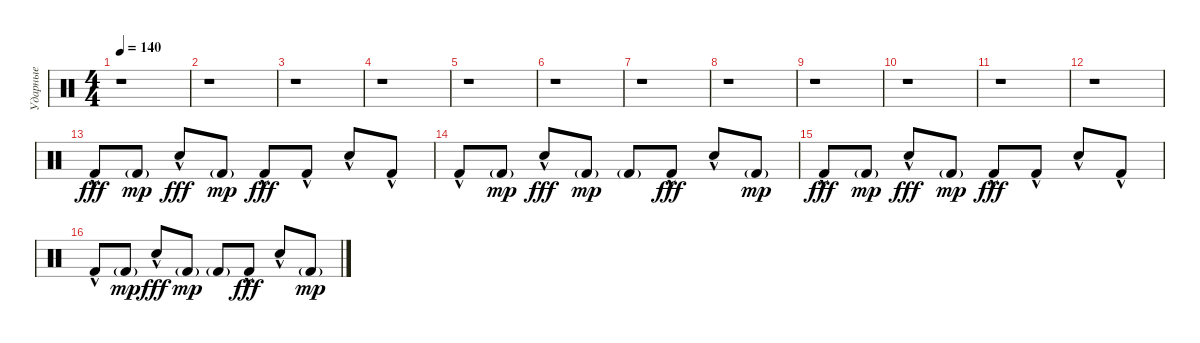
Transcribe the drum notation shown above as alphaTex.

\track ("Ударные" "Ударные") {instrument percussion}
\staff {score}
\articulation defaults
\ts (4 4)
\tempo 140
\clef neutral
\ks c
r.1{dy mp} |
r.1 |
r.1 |
r.1 |
r.1 |
r.1 |
r.1 |
r.1 |
r.1 |
r.1 |
r.1 |
r.1 |
"Kick (hit) 2"{hac}.8{dy fff} "Kick (hit) 2"{g}.8{dy mp} "Snare (hit) 2"{hac}.8{dy fff} "Kick (hit) 2"{g}.8{dy mp} "Kick (hit) 2"{hac}.8{dy fff} "Kick (hit) 2"{hac}.8 "Snare (hit) 2"{hac}.8 "Kick (hit) 2"{hac}.8 |
"Kick (hit) 2"{hac}.8 "Kick (hit) 2"{g}.8{dy mp} "Snare (hit) 2"{hac}.8{dy fff} "Kick (hit) 2"{g}.8{dy mp} "Kick (hit) 2"{g}.8 "Kick (hit) 2"{hac}.8{dy fff} "Snare (hit) 2"{hac}.8 "Kick (hit) 2"{g}.8{dy mp} |
"Kick (hit) 2"{hac}.8{dy fff} "Kick (hit) 2"{g}.8{dy mp} "Snare (hit) 2"{hac}.8{dy fff} "Kick (hit) 2"{g}.8{dy mp} "Kick (hit) 2"{hac}.8{dy fff} "Kick (hit) 2"{hac}.8 "Snare (hit) 2"{hac}.8 "Kick (hit) 2"{hac}.8 |
"Kick (hit) 2"{hac}.8 "Kick (hit) 2"{g}.8{dy mp} "Snare (hit) 2"{hac}.8{dy fff} "Kick (hit) 2"{g}.8{dy mp} "Kick (hit) 2"{g}.8 "Kick (hit) 2"{hac}.8{dy fff} "Snare (hit) 2"{hac}.8 "Kick (hit) 2"{g}.8{dy mp}
